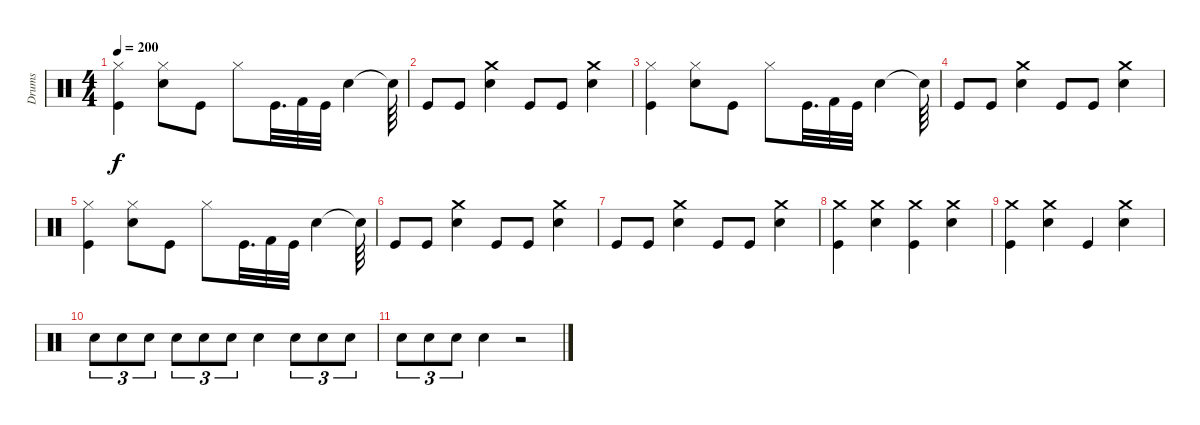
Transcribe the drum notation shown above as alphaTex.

\track ("Drums" "Drums") {instrument percussion}
\staff {score}
\articulation defaults
\ts (4 4)
\tempo 200
\clef neutral
\ks c
("Kick (hit)" "Hi-Hat (closed)").4{dy f} ("Snare (hit) 2" "Hi-Hat (closed)").8 "Kick (hit)".8 "Hi-Hat (closed)".8 "Kick (hit)".32{d} "Kick (hit) 2".32 "Kick (hit)".32 "Snare (hit) 2".4 "Snare (hit)"{t}.64 |
"Kick (hit)".8 "Kick (hit)".8 ("Snare (hit) 2" "Crash medium (hit)").4 "Kick (hit)".8 "Kick (hit)".8 ("Snare (hit) 2" "Crash medium (hit)").4 |
("Kick (hit)" "Hi-Hat (closed)").4 ("Snare (hit) 2" "Hi-Hat (closed)").8 "Kick (hit)".8 "Hi-Hat (closed)".8 "Kick (hit)".32{d} "Kick (hit) 2".32 "Kick (hit)".32 "Snare (hit) 2".4 "Snare (hit)"{t}.64 |
"Kick (hit)".8 "Kick (hit)".8 ("Snare (hit) 2" "Crash medium (hit)").4 "Kick (hit)".8 "Kick (hit)".8 ("Snare (hit) 2" "Crash medium (hit)").4 |
("Kick (hit)" "Hi-Hat (closed)").4 ("Snare (hit) 2" "Hi-Hat (closed)").8 "Kick (hit)".8 "Hi-Hat (closed)".8 "Kick (hit)".32{d} "Kick (hit) 2".32 "Kick (hit)".32 "Snare (hit) 2".4 "Snare (hit)"{t}.64 |
"Kick (hit)".8 "Kick (hit)".8 ("Snare (hit) 2" "Crash medium (hit)").4 "Kick (hit)".8 "Kick (hit)".8 ("Snare (hit) 2" "Crash medium (hit)").4 |
"Kick (hit)".8 "Kick (hit)".8 ("Snare (hit) 2" "Crash medium (hit)").4 "Kick (hit)".8 "Kick (hit)".8 ("Snare (hit) 2" "Crash medium (hit)").4 |
("Crash medium (hit)" "Kick (hit)").4 ("Crash medium (hit)" "Snare (hit) 2").4 ("Crash medium (hit)" "Kick (hit)").4 ("Crash medium (hit)" "Snare (hit) 2").4 |
("Kick (hit)" "Crash medium (hit)").4 ("Snare (hit) 2" "Crash medium (hit)").4 "Kick (hit)".4 ("Snare (hit) 2" "Crash medium (hit)").4 |
"Snare (hit) 2".8{tu (3 2)} "Snare (hit) 2".8{tu (3 2)} "Snare (hit) 2".8{tu (3 2)} "Snare (hit) 2".8{tu (3 2)} "Snare (hit) 2".8{tu (3 2)} "Snare (hit) 2".8{tu (3 2)} "Snare (hit) 2".4 "Snare (hit) 2".8{tu (3 2)} "Snare (hit) 2".8{tu (3 2)} "Snare (hit) 2".8{tu (3 2)} |
"Snare (hit) 2".8{tu (3 2)} "Snare (hit) 2".8{tu (3 2)} "Snare (hit) 2".8{tu (3 2)} "Snare (hit) 2".4 r.2
